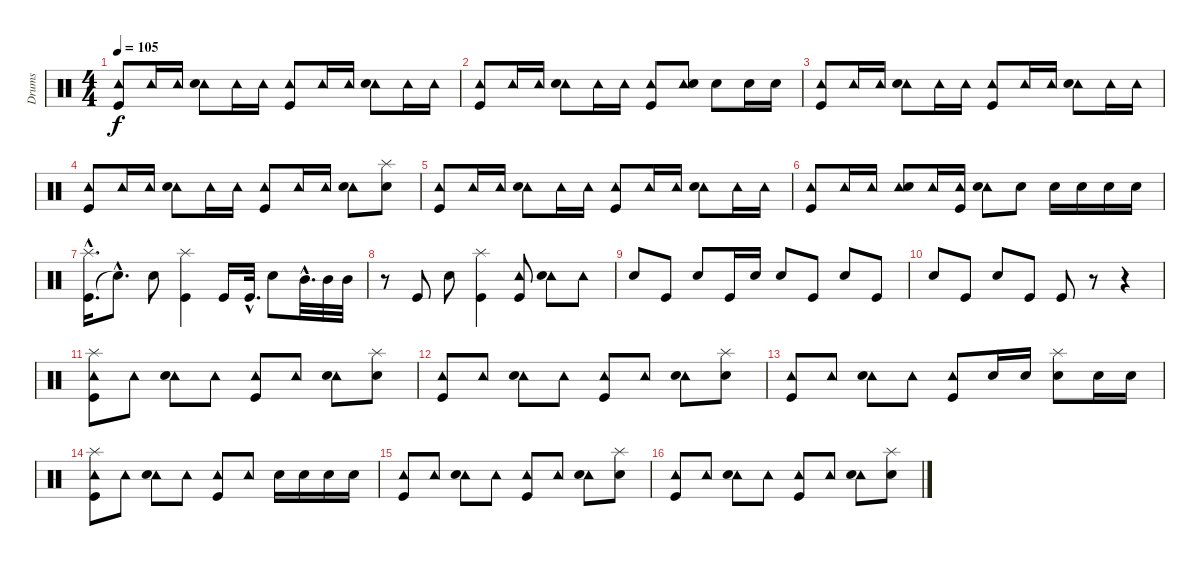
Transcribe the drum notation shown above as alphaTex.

\track ("Drums" "Drums") {instrument percussion}
\staff {score}
\articulation defaults
\ts (4 4)
\tempo 105
\clef neutral
\ks c
("Tambourine (hit)" "Kick (hit)").8{dy f} "Tambourine (hit)".16 "Tambourine (hit)".16 ("Tambourine (hit)" "Snare (hit) 2").8 "Tambourine (hit)".16 "Tambourine (hit)".16 ("Tambourine (hit)" "Kick (hit)").8 "Tambourine (hit)".16 "Tambourine (hit)".16 ("Tambourine (hit)" "Snare (hit) 2").8 "Tambourine (hit)".16 "Tambourine (hit)".16 |
("Tambourine (hit)" "Kick (hit)").8 "Tambourine (hit)".16 "Tambourine (hit)".16 ("Tambourine (hit)" "Snare (hit) 2").8 "Tambourine (hit)".16 "Tambourine (hit)".16 ("Tambourine (hit)" "Kick (hit)").8 ("Tambourine (hit)" "Snare (hit) 2").8 "Snare (hit) 2".8 "Snare (hit) 2".16 "Snare (hit) 2".16 |
("Tambourine (hit)" "Kick (hit)").8 "Tambourine (hit)".16 "Tambourine (hit)".16 ("Tambourine (hit)" "Snare (hit) 2").8 "Tambourine (hit)".16 "Tambourine (hit)".16 ("Tambourine (hit)" "Kick (hit)").8 "Tambourine (hit)".16 "Tambourine (hit)".16 ("Tambourine (hit)" "Snare (hit) 2").8 "Tambourine (hit)".16 "Tambourine (hit)".16 |
("Tambourine (hit)" "Kick (hit)").8 "Tambourine (hit)".16 "Tambourine (hit)".16 ("Tambourine (hit)" "Snare (hit) 2").8 "Tambourine (hit)".16 "Tambourine (hit)".16 ("Tambourine (hit)" "Kick (hit)").8 "Tambourine (hit)".16 "Tambourine (hit)".16 ("Tambourine (hit)" "Snare (hit) 2").8 ("Splash (hit)" "Snare (hit) 2").8 |
("Tambourine (hit)" "Kick (hit)").8 "Tambourine (hit)".16 "Tambourine (hit)".16 ("Tambourine (hit)" "Snare (hit) 2").8 "Tambourine (hit)".16 "Tambourine (hit)".16 ("Tambourine (hit)" "Kick (hit)").8 "Tambourine (hit)".16 "Tambourine (hit)".16 ("Tambourine (hit)" "Snare (hit) 2").8 "Tambourine (hit)".16 "Tambourine (hit)".16 |
("Tambourine (hit)" "Kick (hit)").8 "Tambourine (hit)".16 "Tambourine (hit)".16 ("Tambourine (hit)" "Snare (hit) 2").8 "Tambourine (hit)".16 ("Tambourine (hit)" "Kick (hit)").16 ("Tambourine (hit)" "Snare (hit) 2").8 "Snare (hit) 2".8 "Snare (hit) 2".16 "Snare (hit) 2".16 "Snare (hit) 2".16 "Snare (hit) 2".16 |
("Kick (hit)"{hac} "Splash (hit)"{hac}).16{d} "Snare (hit)"{hac t}.8{d} "Snare (hit) 2".8 ("Kick (hit)" "Splash (hit)").4 "Kick (hit)".16 "Kick (hit)"{hac}.32{d} "Snare (hit) 2".8 "Mid Tom (hit)"{hac}.32{d} "Mid Tom (hit)".32 "Mid Tom (hit)".32 |
r.8 "Kick (hit)".8 "Snare (hit) 2".8 ("Kick (hit)" "Splash (hit)").4 ("Tambourine (hit)" "Kick (hit)").8 ("Tambourine (hit)" "Snare (hit) 2").8 "Tambourine (hit)".8 |
"Snare (hit) 2".8 "Kick (hit)".8 "Snare (hit) 2".8 "Kick (hit)".16 "Snare (hit) 2".16 "Snare (hit) 2".8 "Kick (hit)".8 "Snare (hit) 2".8 "Kick (hit)".8 |
"Snare (hit) 2".8 "Kick (hit)".8 "Snare (hit) 2".8 "Kick (hit)".8 "Kick (hit)".8 r.8 r.4 |
("Tambourine (hit)" "Kick (hit)" "Splash (hit)").8 "Tambourine (hit)".8 ("Tambourine (hit)" "Snare (hit) 2").8 "Tambourine (hit)".8 ("Tambourine (hit)" "Kick (hit)").8 "Tambourine (hit)".8 ("Tambourine (hit)" "Snare (hit) 2").8 ("Splash (hit)" "Snare (hit) 2").8 |
("Tambourine (hit)" "Kick (hit)").8 "Tambourine (hit)".8 ("Tambourine (hit)" "Snare (hit) 2").8 "Tambourine (hit)".8 ("Tambourine (hit)" "Kick (hit)").8 "Tambourine (hit)".8 ("Tambourine (hit)" "Snare (hit) 2").8 ("Splash (hit)" "Snare (hit) 2").8 |
("Tambourine (hit)" "Kick (hit)").8 "Tambourine (hit)".8 ("Tambourine (hit)" "Snare (hit) 2").8 "Tambourine (hit)".8 ("Tambourine (hit)" "Kick (hit)").8 "Snare (hit) 2".16 "Snare (hit) 2".16 ("Splash (hit)" "Snare (hit) 2").8 "Snare (hit) 2".16 "Snare (hit) 2".16 |
("Tambourine (hit)" "Kick (hit)" "Splash (hit)").8 "Tambourine (hit)".8 ("Tambourine (hit)" "Snare (hit) 2").8 "Tambourine (hit)".8 ("Tambourine (hit)" "Kick (hit)").8 "Tambourine (hit)".8 "Snare (hit) 2".16 "Snare (hit) 2".16 "Snare (hit) 2".16 "Snare (hit) 2".16 |
("Tambourine (hit)" "Kick (hit)").8 "Tambourine (hit)".8 ("Tambourine (hit)" "Snare (hit) 2").8 "Tambourine (hit)".8 ("Tambourine (hit)" "Kick (hit)").8 "Tambourine (hit)".8 ("Tambourine (hit)" "Snare (hit) 2").8 ("Splash (hit)" "Snare (hit) 2").8 |
("Tambourine (hit)" "Kick (hit)").8 "Tambourine (hit)".8 ("Tambourine (hit)" "Snare (hit) 2").8 "Tambourine (hit)".8 ("Tambourine (hit)" "Kick (hit)").8 "Tambourine (hit)".8 ("Tambourine (hit)" "Snare (hit) 2").8 ("Splash (hit)" "Snare (hit) 2").8
